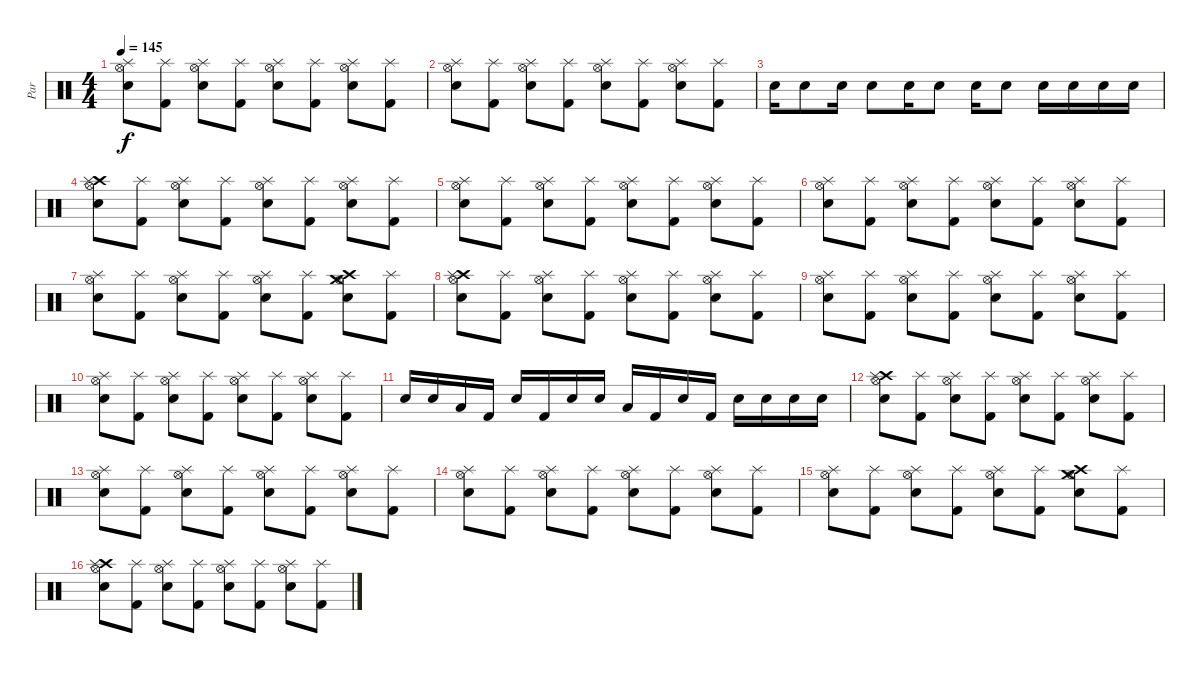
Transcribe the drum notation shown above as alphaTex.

\track ("Par" "Par") {instrument percussion}
\staff {score}
\articulation defaults
\ts (4 4)
\tempo 145
\clef neutral
\ks c
("Splash (hit)" "Hi-Hat (open)" "Snare (hit) 2").8{dy f} ("Splash (hit)" "Kick (hit) 2").8 ("Splash (hit)" "Hi-Hat (open)" "Snare (hit) 2").8 ("Splash (hit)" "Kick (hit) 2").8 ("Splash (hit)" "Hi-Hat (open)" "Snare (hit) 2").8 ("Splash (hit)" "Kick (hit) 2").8 ("Splash (hit)" "Hi-Hat (open)" "Snare (hit) 2").8 ("Splash (hit)" "Kick (hit) 2").8 |
("Splash (hit)" "Hi-Hat (open)" "Snare (hit) 2").8 ("Splash (hit)" "Kick (hit) 2").8 ("Splash (hit)" "Hi-Hat (open)" "Snare (hit) 2").8 ("Splash (hit)" "Kick (hit) 2").8 ("Splash (hit)" "Hi-Hat (open)" "Snare (hit) 2").8 ("Splash (hit)" "Kick (hit) 2").8 ("Splash (hit)" "Hi-Hat (open)" "Snare (hit) 2").8 ("Splash (hit)" "Kick (hit) 2").8 |
"Snare (hit) 2".16 "Snare (hit) 2".8 "Snare (hit) 2".16 "Snare (hit) 2".8 "Snare (hit) 2".16 "Snare (hit) 2".8 "Snare (hit) 2".16 "Snare (hit) 2".8 "Snare (hit) 2".16 "Snare (hit) 2".16 "Snare (hit) 2".16 "Snare (hit) 2".16 |
("Crash high (hit)" "Splash (hit)" "Hi-Hat (open)" "Snare (hit) 2").8 ("Splash (hit)" "Kick (hit) 2").8 ("Splash (hit)" "Hi-Hat (open)" "Snare (hit) 2").8 ("Splash (hit)" "Kick (hit) 2").8 ("Splash (hit)" "Hi-Hat (open)" "Snare (hit) 2").8 ("Splash (hit)" "Kick (hit) 2").8 ("Splash (hit)" "Hi-Hat (open)" "Snare (hit) 2").8 ("Splash (hit)" "Kick (hit) 2").8 |
("Splash (hit)" "Hi-Hat (open)" "Snare (hit) 2").8 ("Splash (hit)" "Kick (hit) 2").8 ("Splash (hit)" "Hi-Hat (open)" "Snare (hit) 2").8 ("Splash (hit)" "Kick (hit) 2").8 ("Splash (hit)" "Hi-Hat (open)" "Snare (hit) 2").8 ("Splash (hit)" "Kick (hit) 2").8 ("Splash (hit)" "Hi-Hat (open)" "Snare (hit) 2").8 ("Splash (hit)" "Kick (hit) 2").8 |
("Splash (hit)" "Hi-Hat (open)" "Snare (hit) 2").8 ("Splash (hit)" "Kick (hit) 2").8 ("Splash (hit)" "Hi-Hat (open)" "Snare (hit) 2").8 ("Splash (hit)" "Kick (hit) 2").8 ("Splash (hit)" "Hi-Hat (open)" "Snare (hit) 2").8 ("Splash (hit)" "Kick (hit) 2").8 ("Splash (hit)" "Hi-Hat (open)" "Snare (hit) 2").8 ("Splash (hit)" "Kick (hit) 2").8 |
("Splash (hit)" "Hi-Hat (open)" "Snare (hit) 2").8 ("Splash (hit)" "Kick (hit) 2").8 ("Splash (hit)" "Hi-Hat (open)" "Snare (hit) 2").8 ("Splash (hit)" "Kick (hit) 2").8 ("Splash (hit)" "Hi-Hat (open)" "Snare (hit) 2").8 ("Splash (hit)" "Kick (hit) 2").8 ("Crash medium (hit)" "Crash high (hit)" "Hi-Hat (open)" "Snare (hit) 2").8 ("Splash (hit)" "Kick (hit) 2").8 |
("Crash high (hit)" "Splash (hit)" "Hi-Hat (open)" "Snare (hit) 2").8 ("Splash (hit)" "Kick (hit) 2").8 ("Splash (hit)" "Hi-Hat (open)" "Snare (hit) 2").8 ("Splash (hit)" "Kick (hit) 2").8 ("Splash (hit)" "Hi-Hat (open)" "Snare (hit) 2").8 ("Splash (hit)" "Kick (hit) 2").8 ("Splash (hit)" "Hi-Hat (open)" "Snare (hit) 2").8 ("Splash (hit)" "Kick (hit) 2").8 |
("Splash (hit)" "Hi-Hat (open)" "Snare (hit) 2").8 ("Splash (hit)" "Kick (hit) 2").8 ("Splash (hit)" "Hi-Hat (open)" "Snare (hit) 2").8 ("Splash (hit)" "Kick (hit) 2").8 ("Splash (hit)" "Hi-Hat (open)" "Snare (hit) 2").8 ("Splash (hit)" "Kick (hit) 2").8 ("Splash (hit)" "Hi-Hat (open)" "Snare (hit) 2").8 ("Splash (hit)" "Kick (hit) 2").8 |
("Splash (hit)" "Hi-Hat (open)" "Snare (hit) 2").8 ("Splash (hit)" "Kick (hit) 2").8 ("Splash (hit)" "Hi-Hat (open)" "Snare (hit) 2").8 ("Splash (hit)" "Kick (hit) 2").8 ("Splash (hit)" "Hi-Hat (open)" "Snare (hit) 2").8 ("Splash (hit)" "Kick (hit) 2").8 ("Splash (hit)" "Hi-Hat (open)" "Snare (hit) 2").8 ("Splash (hit)" "Kick (hit) 2").8 |
"Snare (hit) 2".16 "Snare (hit) 2".16 "Low Floor Tom (hit)".16 "Kick (hit) 2".16 "Snare (hit) 2".16 "Kick (hit) 2".16 "Snare (hit) 2".16 "Snare (hit) 2".16 "Low Floor Tom (hit)".16 "Kick (hit) 2".16 "Snare (hit) 2".16 "Kick (hit) 2".16 "Snare (hit) 2".16 "Snare (hit) 2".16 "Snare (hit) 2".16 "Snare (hit) 2".16 |
("Crash high (hit)" "Splash (hit)" "Hi-Hat (open)" "Snare (hit) 2").8 ("Splash (hit)" "Kick (hit) 2").8 ("Splash (hit)" "Hi-Hat (open)" "Snare (hit) 2").8 ("Splash (hit)" "Kick (hit) 2").8 ("Splash (hit)" "Hi-Hat (open)" "Snare (hit) 2").8 ("Splash (hit)" "Kick (hit) 2").8 ("Splash (hit)" "Hi-Hat (open)" "Snare (hit) 2").8 ("Splash (hit)" "Kick (hit) 2").8 |
("Splash (hit)" "Hi-Hat (open)" "Snare (hit) 2").8 ("Splash (hit)" "Kick (hit) 2").8 ("Splash (hit)" "Hi-Hat (open)" "Snare (hit) 2").8 ("Splash (hit)" "Kick (hit) 2").8 ("Splash (hit)" "Hi-Hat (open)" "Snare (hit) 2").8 ("Splash (hit)" "Kick (hit) 2").8 ("Splash (hit)" "Hi-Hat (open)" "Snare (hit) 2").8 ("Splash (hit)" "Kick (hit) 2").8 |
("Splash (hit)" "Hi-Hat (open)" "Snare (hit) 2").8 ("Splash (hit)" "Kick (hit) 2").8 ("Splash (hit)" "Hi-Hat (open)" "Snare (hit) 2").8 ("Splash (hit)" "Kick (hit) 2").8 ("Splash (hit)" "Hi-Hat (open)" "Snare (hit) 2").8 ("Splash (hit)" "Kick (hit) 2").8 ("Splash (hit)" "Hi-Hat (open)" "Snare (hit) 2").8 ("Splash (hit)" "Kick (hit) 2").8 |
("Splash (hit)" "Hi-Hat (open)" "Snare (hit) 2").8 ("Splash (hit)" "Kick (hit) 2").8 ("Splash (hit)" "Hi-Hat (open)" "Snare (hit) 2").8 ("Splash (hit)" "Kick (hit) 2").8 ("Splash (hit)" "Hi-Hat (open)" "Snare (hit) 2").8 ("Splash (hit)" "Kick (hit) 2").8 ("Crash medium (hit)" "Crash high (hit)" "Hi-Hat (open)" "Snare (hit) 2").8 ("Splash (hit)" "Kick (hit) 2").8 |
("Crash high (hit)" "Splash (hit)" "Hi-Hat (open)" "Snare (hit) 2").8 ("Splash (hit)" "Kick (hit) 2").8 ("Splash (hit)" "Hi-Hat (open)" "Snare (hit) 2").8 ("Splash (hit)" "Kick (hit) 2").8 ("Splash (hit)" "Hi-Hat (open)" "Snare (hit) 2").8 ("Splash (hit)" "Kick (hit) 2").8 ("Splash (hit)" "Hi-Hat (open)" "Snare (hit) 2").8 ("Splash (hit)" "Kick (hit) 2").8
